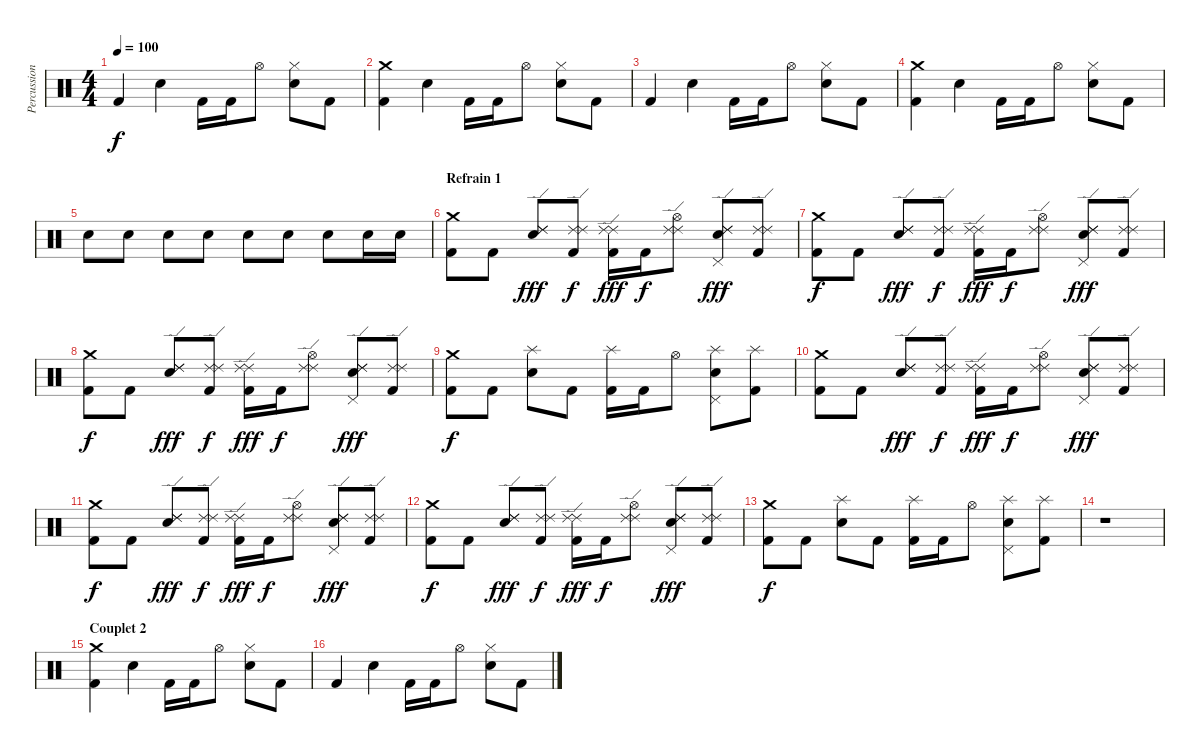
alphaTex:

\track ("Percussions" "Percussion") {instrument percussion}
\staff {score}
\articulation defaults
\ts (4 4)
\tempo 100
\clef neutral
\ks c "Kick (hit) 2".4{dy f} "Snare (hit) 2".4 "Kick (hit) 2".16 "Kick (hit) 2".16 "Hi-Hat (open)".8
("Hi-Hat (closed)" "Snare (hit) 2").8 "Kick (hit) 2".8 |
("Crash medium (hit)" "Kick (hit) 2").4 "Snare (hit) 2".4 "Kick (hit) 2".16 "Kick (hit) 2".16 "Hi-Hat (open)".8 ("Hi-Hat (closed)" "Snare (hit) 2").8 "Kick (hit) 2".8 |
"Kick (hit) 2".4 "Snare (hit) 2".4 "Kick (hit) 2".16 "Kick (hit) 2".16 "Hi-Hat (open)".8 ("Hi-Hat (closed)" "Snare (hit) 2").8 "Kick (hit) 2".8 |
("Crash medium (hit)" "Kick (hit) 2").4 "Snare (hit) 2".4 "Kick (hit) 2".16 "Kick (hit) 2".16 "Hi-Hat (open)".8 ("Hi-Hat (closed)" "Snare (hit) 2").8 "Kick (hit) 2".8 |
"Snare (hit) 2".8{volume 8} "Snare (hit) 2".8{volume 13} "Snare (hit) 2".8 "Snare (hit) 2".8 "Snare (hit) 2".8 "Snare (hit) 2".8 "Snare (hit) 2".8 "Snare (hit) 2".16 "Snare (hit) 2".16 |
\section ("" "Refrain 1")
("Crash medium (hit)" "Kick (hit) 2").8 "Kick (hit) 2".8 ("Ride (edge) 2" "Ride (edge) 2" "Snare (hit) 2").8{dy fff} ("Ride (edge) 2" "Ride (edge) 2" "Kick (hit) 2").8{dy f} ("Ride (edge) 2" "Ride (edge) 2" "Kick (hit) 2").16{dy fff} "Kick (hit) 2".16{dy f} ("Ride (edge) 2" "Ride (edge) 2" "Hi-Hat (open)").8 ("Ride (edge) 2" "Ride (edge) 2" "Pedal Hi-Hat (hit)" "Snare (hit) 2").8{dy fff} ("Ride (edge) 2" "Ride (edge) 2" "Kick (hit) 2").8 |
("Crash medium (hit)" "Kick (hit) 2").8{dy f} "Kick (hit) 2".8 ("Ride (edge) 2" "Ride (edge) 2" "Snare (hit) 2").8{dy fff} ("Ride (edge) 2" "Ride (edge) 2" "Kick (hit) 2").8{dy f} ("Ride (edge) 2" "Ride (edge) 2" "Kick (hit) 2").16{dy fff} "Kick (hit) 2".16{dy f} ("Ride (edge) 2" "Ride (edge) 2" "Hi-Hat (open)").8 ("Ride (edge) 2" "Ride (edge) 2" "Pedal Hi-Hat (hit)" "Snare (hit) 2").8{dy fff} ("Ride (edge) 2" "Ride (edge) 2" "Kick (hit) 2").8 |
("Crash medium (hit)" "Kick (hit) 2").8{dy f} "Kick (hit) 2".8 ("Ride (edge) 2" "Ride (edge) 2" "Snare (hit) 2").8{dy fff} ("Ride (edge) 2" "Ride (edge) 2" "Kick (hit) 2").8{dy f} ("Ride (edge) 2" "Ride (edge) 2" "Kick (hit) 2").16{dy fff} "Kick (hit) 2".16{dy f} ("Ride (edge) 2" "Ride (edge) 2" "Hi-Hat (open)").8 ("Ride (edge) 2" "Ride (edge) 2" "Pedal Hi-Hat (hit)" "Snare (hit) 2").8{dy fff} ("Ride (edge) 2" "Ride (edge) 2" "Kick (hit) 2").8 |
("Crash medium (hit)" "Kick (hit) 2").8{dy f} "Kick (hit) 2".8 ("Splash (hit)" "Snare (hit) 2").8 "Kick (hit) 2".8 ("Splash (hit)" "Kick (hit) 2").16 "Kick (hit) 2".16 "Hi-Hat (open)".8 ("Splash (hit)" "Pedal Hi-Hat (hit)" "Snare (hit) 2").8 ("Splash (hit)" "Kick (hit) 2").8 |
("Crash medium (hit)" "Kick (hit) 2").8 "Kick (hit) 2".8 ("Ride (edge) 2" "Ride (edge) 2" "Snare (hit) 2").8{dy fff} ("Ride (edge) 2" "Ride (edge) 2" "Kick (hit) 2").8{dy f} ("Ride (edge) 2" "Ride (edge) 2" "Kick (hit) 2").16{dy fff} "Kick (hit) 2".16{dy f} ("Ride (edge) 2" "Ride (edge) 2" "Hi-Hat (open)").8 ("Ride (edge) 2" "Ride (edge) 2" "Pedal Hi-Hat (hit)" "Snare (hit) 2").8{dy fff} ("Ride (edge) 2" "Ride (edge) 2" "Kick (hit) 2").8 |
("Crash medium (hit)" "Kick (hit) 2").8{dy f} "Kick (hit) 2".8 ("Ride (edge) 2" "Ride (edge) 2" "Snare (hit) 2").8{dy fff} ("Ride (edge) 2" "Ride (edge) 2" "Kick (hit) 2").8{dy f} ("Ride (edge) 2" "Ride (edge) 2" "Kick (hit) 2").16{dy fff} "Kick (hit) 2".16{dy f} ("Ride (edge) 2" "Ride (edge) 2" "Hi-Hat (open)").8 ("Ride (edge) 2" "Ride (edge) 2" "Pedal Hi-Hat (hit)" "Snare (hit) 2").8{dy fff} ("Ride (edge) 2" "Ride (edge) 2" "Kick (hit) 2").8 |
("Crash medium (hit)" "Kick (hit) 2").8{dy f} "Kick (hit) 2".8 ("Ride (edge) 2" "Ride (edge) 2" "Snare (hit) 2").8{dy fff} ("Ride (edge) 2" "Ride (edge) 2" "Kick (hit) 2").8{dy f} ("Ride (edge) 2" "Ride (edge) 2" "Kick (hit) 2").16{dy fff} "Kick (hit) 2".16{dy f} ("Ride (edge) 2" "Ride (edge) 2" "Hi-Hat (open)").8 ("Ride (edge) 2" "Ride (edge) 2" "Pedal Hi-Hat (hit)" "Snare (hit) 2").8{dy fff} ("Ride (edge) 2" "Ride (edge) 2" "Kick (hit) 2").8 |
("Crash medium (hit)" "Kick (hit) 2").8{dy f} "Kick (hit) 2".8 ("Splash (hit)" "Snare (hit) 2").8 "Kick (hit) 2".8 ("Splash (hit)" "Kick (hit) 2").16 "Kick (hit) 2".16 "Hi-Hat (open)".8 ("Splash (hit)" "Pedal Hi-Hat (hit)" "Snare (hit) 2").8 ("Splash (hit)" "Kick (hit) 2").8 |
r.1 |
\section ("" "Couplet 2")
("Crash medium (hit)" "Kick (hit) 2").4 "Snare (hit) 2".4 "Kick (hit) 2".16 "Kick (hit) 2".16 "Hi-Hat (open)".8 ("Hi-Hat (closed)" "Snare (hit) 2").8 "Kick (hit) 2".8 |
"Kick (hit) 2".4 "Snare (hit) 2".4 "Kick (hit) 2".16 "Kick (hit) 2".16 "Hi-Hat (open)".8 ("Hi-Hat (closed)" "Snare (hit) 2").8 "Kick (hit) 2".8
